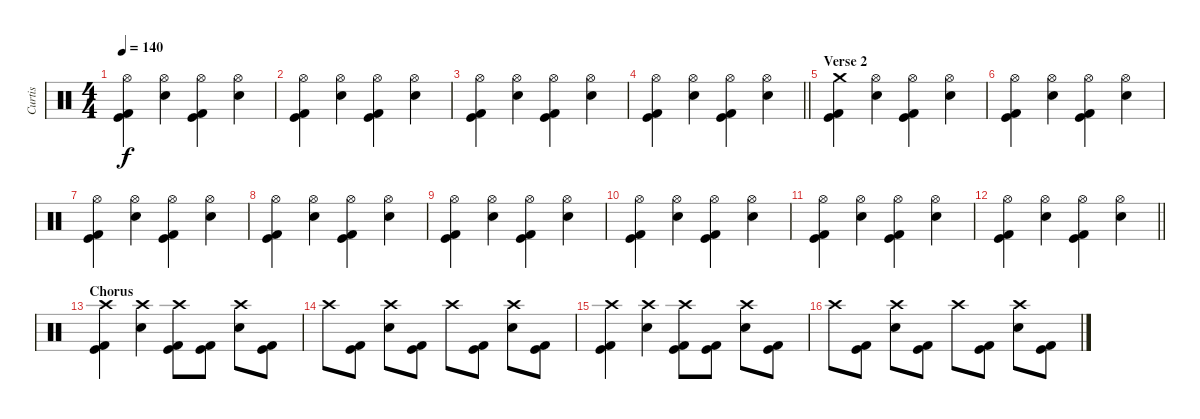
\track ("Curtis" "Curtis") {instrument percussion}
\staff {score}
\articulation defaults
\ts (4 4)
\tempo 140
\clef neutral
\ks c
("Hi-Hat (open)" "Kick (hit)" "Kick (hit) 2").4{dy f} ("Hi-Hat (open)" "Electric Snare (hit)").4 ("Hi-Hat (open)" "Kick (hit)" "Kick (hit) 2").4 ("Hi-Hat (open)" "Electric Snare (hit)").4 |
("Hi-Hat (open)" "Kick (hit)" "Kick (hit) 2").4 ("Hi-Hat (open)" "Electric Snare (hit)").4 ("Hi-Hat (open)" "Kick (hit)" "Kick (hit) 2").4 ("Hi-Hat (open)" "Electric Snare (hit)").4 |
("Hi-Hat (open)" "Kick (hit)" "Kick (hit) 2").4 ("Hi-Hat (open)" "Electric Snare (hit)").4 ("Hi-Hat (open)" "Kick (hit)" "Kick (hit) 2").4 ("Hi-Hat (open)" "Electric Snare (hit)").4 |
\barLineRight lightlight
("Hi-Hat (open)" "Kick (hit)" "Kick (hit) 2").4 ("Hi-Hat (open)" "Electric Snare (hit)").4 ("Hi-Hat (open)" "Kick (hit)" "Kick (hit) 2").4 ("Hi-Hat (open)" "Electric Snare (hit)").4 |
\section ("" "Verse 2")
("Crash medium (hit)" "Kick (hit)" "Kick (hit) 2").4 ("Hi-Hat (open)" "Electric Snare (hit)").4 ("Hi-Hat (open)" "Kick (hit)" "Kick (hit) 2").4 ("Hi-Hat (open)" "Electric Snare (hit)").4 |
("Hi-Hat (open)" "Kick (hit)" "Kick (hit) 2").4 ("Hi-Hat (open)" "Electric Snare (hit)").4 ("Hi-Hat (open)" "Kick (hit)" "Kick (hit) 2").4 ("Hi-Hat (open)" "Electric Snare (hit)").4 |
("Hi-Hat (open)" "Kick (hit)" "Kick (hit) 2").4 ("Hi-Hat (open)" "Electric Snare (hit)").4 ("Hi-Hat (open)" "Kick (hit)" "Kick (hit) 2").4 ("Hi-Hat (open)" "Electric Snare (hit)").4 |
("Hi-Hat (open)" "Kick (hit)" "Kick (hit) 2").4 ("Hi-Hat (open)" "Electric Snare (hit)").4 ("Hi-Hat (open)" "Kick (hit)" "Kick (hit) 2").4 ("Hi-Hat (open)" "Electric Snare (hit)").4 |
("Hi-Hat (open)" "Kick (hit)" "Kick (hit) 2").4 ("Hi-Hat (open)" "Electric Snare (hit)").4 ("Hi-Hat (open)" "Kick (hit)" "Kick (hit) 2").4 ("Hi-Hat (open)" "Electric Snare (hit)").4 |
("Hi-Hat (open)" "Kick (hit)" "Kick (hit) 2").4 ("Hi-Hat (open)" "Electric Snare (hit)").4 ("Hi-Hat (open)" "Kick (hit)" "Kick (hit) 2").4 ("Hi-Hat (open)" "Electric Snare (hit)").4 |
("Hi-Hat (open)" "Kick (hit)" "Kick (hit) 2").4 ("Hi-Hat (open)" "Electric Snare (hit)").4 ("Hi-Hat (open)" "Kick (hit)" "Kick (hit) 2").4 ("Hi-Hat (open)" "Electric Snare (hit)").4 |
\barLineRight lightlight
("Hi-Hat (open)" "Kick (hit)" "Kick (hit) 2").4 ("Hi-Hat (open)" "Electric Snare (hit)").4 ("Hi-Hat (open)" "Kick (hit)" "Kick (hit) 2").4 ("Hi-Hat (open)" "Electric Snare (hit)").4 |
\section ("" "Chorus")
("Crash high (hit)" "Kick (hit) 2" "Kick (hit)").4 ("Crash high (hit)" "Electric Snare (hit)").4 ("Crash high (hit)" "Kick (hit) 2" "Kick (hit)").8 ("Kick (hit) 2" "Kick (hit)").8 ("Crash high (hit)" "Electric Snare (hit)").8 ("Kick (hit) 2" "Kick (hit)").8 |
"Crash high (hit)".8 ("Kick (hit) 2" "Kick (hit)").8 ("Crash high (hit)" "Electric Snare (hit)").8 ("Kick (hit) 2" "Kick (hit)").8 "Crash high (hit)".8 ("Kick (hit) 2" "Kick (hit)").8 ("Crash high (hit)" "Electric Snare (hit)").8 ("Kick (hit) 2" "Kick (hit)").8 |
("Crash high (hit)" "Kick (hit) 2" "Kick (hit)").4 ("Crash high (hit)" "Electric Snare (hit)").4 ("Crash high (hit)" "Kick (hit) 2" "Kick (hit)").8 ("Kick (hit) 2" "Kick (hit)").8 ("Crash high (hit)" "Electric Snare (hit)").8 ("Kick (hit) 2" "Kick (hit)").8 |
"Crash high (hit)".8 ("Kick (hit) 2" "Kick (hit)").8 ("Crash high (hit)" "Electric Snare (hit)").8 ("Kick (hit) 2" "Kick (hit)").8 "Crash high (hit)".8 ("Kick (hit) 2" "Kick (hit)").8 ("Crash high (hit)" "Electric Snare (hit)").8 ("Kick (hit) 2" "Kick (hit)").8
